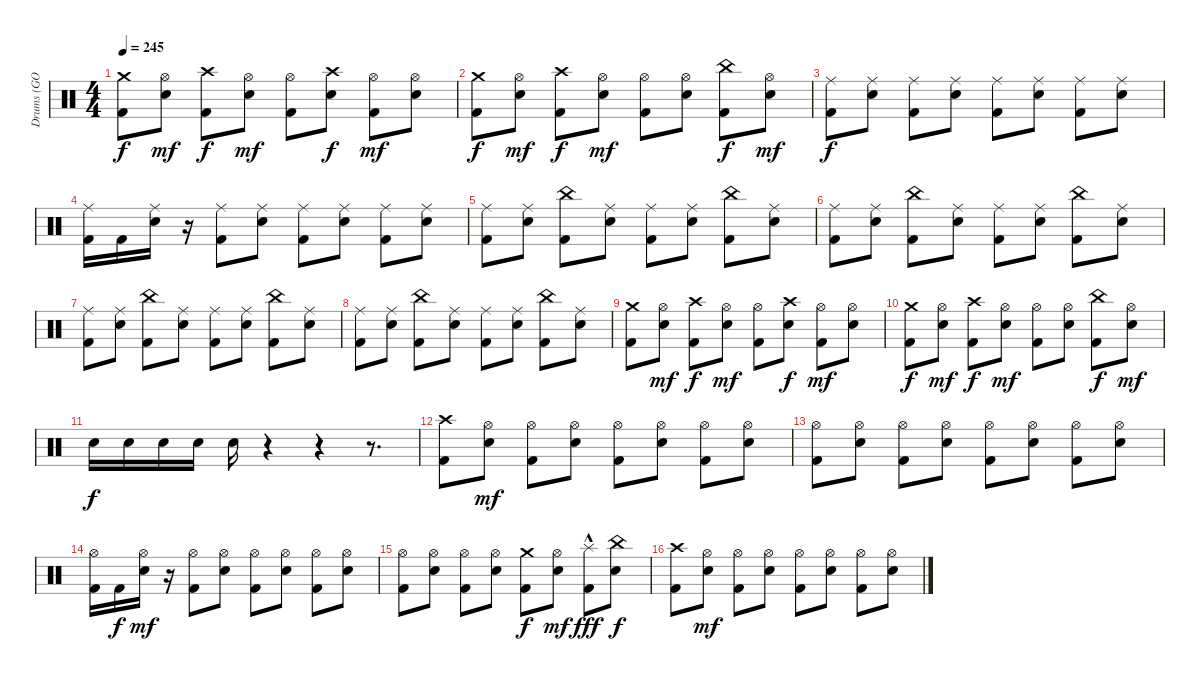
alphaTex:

\track ("Drums (GO DIRK)" "Drums (GO ") {instrument percussion}
\staff {score}
\articulation defaults
\ts (4 4)
\tempo 245
\clef neutral
\ks c
("Crash medium (hit)" "Kick (hit) 2").8{dy f} ("Hi-Hat (open)" "Electric Snare (hit)").8{dy mf} ("Crash high (hit)" "Kick (hit) 2").8{dy f} ("Hi-Hat (open)" "Electric Snare (hit)").8{dy mf} ("Hi-Hat (open)" "Kick (hit) 2").8 ("Crash high (hit)" "Electric Snare (hit)").8{dy f} ("Hi-Hat (open)" "Kick (hit) 2").8{dy mf} ("Hi-Hat (open)" "Electric Snare (hit)").8 |
("Crash medium (hit)" "Kick (hit) 2").8{dy f} ("Hi-Hat (open)" "Electric Snare (hit)").8{dy mf} ("Crash high (hit)" "Kick (hit) 2").8{dy f} ("Hi-Hat (open)" "Electric Snare (hit)").8{dy mf} ("Hi-Hat (open)" "Kick (hit) 2").8 ("Hi-Hat (open)" "Electric Snare (hit)").8 ("China (hit)" "Kick (hit) 2").8{dy f} ("Hi-Hat (open)" "Electric Snare (hit)").8{dy mf} |
("Ride (middle)" "Kick (hit) 2").8{dy f} ("Ride (middle)" "Electric Snare (hit)").8 ("Ride (middle)" "Kick (hit) 2").8 ("Ride (middle)" "Electric Snare (hit)").8 ("Ride (middle)" "Kick (hit) 2").8 ("Ride (middle)" "Electric Snare (hit)").8 ("Ride (middle)" "Kick (hit) 2").8 ("Ride (middle)" "Electric Snare (hit)").8 |
("Ride (middle)" "Kick (hit) 2").16 "Kick (hit) 2".16 ("Ride (middle)" "Electric Snare (hit)").16 r.16 ("Ride (middle)" "Kick (hit) 2").8 ("Ride (middle)" "Electric Snare (hit)").8 ("Ride (middle)" "Kick (hit) 2").8 ("Ride (middle)" "Electric Snare (hit)").8 ("Ride (middle)" "Kick (hit) 2").8 ("Ride (middle)" "Electric Snare (hit)").8 |
("Ride (middle)" "Kick (hit) 2").8 ("Ride (middle)" "Electric Snare (hit)").8 ("China (hit)" "Kick (hit) 2").8 ("Ride (middle)" "Electric Snare (hit)").8 ("Ride (middle)" "Kick (hit) 2").8 ("Ride (middle)" "Electric Snare (hit)").8 ("China (hit)" "Kick (hit) 2").8 ("Ride (middle)" "Electric Snare (hit)").8 |
("Ride (middle)" "Kick (hit) 2").8 ("Ride (middle)" "Electric Snare (hit)").8 ("China (hit)" "Kick (hit) 2").8 ("Ride (middle)" "Electric Snare (hit)").8 ("Ride (middle)" "Kick (hit) 2").8 ("Ride (middle)" "Electric Snare (hit)").8 ("China (hit)" "Kick (hit) 2").8 ("Ride (middle)" "Electric Snare (hit)").8 |
("Ride (middle)" "Kick (hit) 2").8 ("Ride (middle)" "Electric Snare (hit)").8 ("China (hit)" "Kick (hit) 2").8 ("Ride (middle)" "Electric Snare (hit)").8 ("Ride (middle)" "Kick (hit) 2").8 ("Ride (middle)" "Electric Snare (hit)").8 ("China (hit)" "Kick (hit) 2").8 ("Ride (middle)" "Electric Snare (hit)").8 |
("Ride (middle)" "Kick (hit) 2").8 ("Ride (middle)" "Electric Snare (hit)").8 ("China (hit)" "Kick (hit) 2").8 ("Ride (middle)" "Electric Snare (hit)").8 ("Ride (middle)" "Kick (hit) 2").8 ("Ride (middle)" "Electric Snare (hit)").8 ("China (hit)" "Kick (hit) 2").8 ("Ride (middle)" "Electric Snare (hit)").8 |
("Crash medium (hit)" "Kick (hit) 2").8 ("Hi-Hat (open)" "Electric Snare (hit)").8{dy mf} ("Crash high (hit)" "Kick (hit) 2").8{dy f} ("Hi-Hat (open)" "Electric Snare (hit)").8{dy mf} ("Hi-Hat (open)" "Kick (hit) 2").8 ("Crash high (hit)" "Electric Snare (hit)").8{dy f} ("Hi-Hat (open)" "Kick (hit) 2").8{dy mf} ("Hi-Hat (open)" "Electric Snare (hit)").8 |
("Crash medium (hit)" "Kick (hit) 2").8{dy f} ("Hi-Hat (open)" "Electric Snare (hit)").8{dy mf} ("Crash high (hit)" "Kick (hit) 2").8{dy f} ("Hi-Hat (open)" "Electric Snare (hit)").8{dy mf} ("Hi-Hat (open)" "Kick (hit) 2").8 ("Hi-Hat (open)" "Electric Snare (hit)").8 ("China (hit)" "Kick (hit) 2").8{dy f} ("Hi-Hat (open)" "Electric Snare (hit)").8{dy mf} |
"Electric Snare (hit)".16{dy f} "Electric Snare (hit)".16 "Electric Snare (hit)".16 "Electric Snare (hit)".16 "Electric Snare (hit)".16 r.4 r.4 r.8{d} |
("Crash high (hit)" "Kick (hit) 2").8 ("Hi-Hat (open)" "Electric Snare (hit)").8{dy mf} ("Hi-Hat (open)" "Kick (hit) 2").8 ("Hi-Hat (open)" "Electric Snare (hit)").8 ("Hi-Hat (open)" "Kick (hit) 2").8 ("Hi-Hat (open)" "Electric Snare (hit)").8 ("Hi-Hat (open)" "Kick (hit) 2").8 ("Hi-Hat (open)" "Electric Snare (hit)").8 |
("Hi-Hat (open)" "Kick (hit) 2").8 ("Hi-Hat (open)" "Electric Snare (hit)").8 ("Hi-Hat (open)" "Kick (hit) 2").8 ("Hi-Hat (open)" "Electric Snare (hit)").8 ("Hi-Hat (open)" "Kick (hit) 2").8 ("Hi-Hat (open)" "Electric Snare (hit)").8 ("Hi-Hat (open)" "Kick (hit) 2").8 ("Hi-Hat (open)" "Electric Snare (hit)").8 |
("Hi-Hat (open)" "Kick (hit) 2").16 "Kick (hit) 2".16{dy f} ("Hi-Hat (open)" "Electric Snare (hit)").16{dy mf} r.16 ("Hi-Hat (open)" "Kick (hit) 2").8 ("Hi-Hat (open)" "Electric Snare (hit)").8 ("Hi-Hat (open)" "Kick (hit) 2").8 ("Hi-Hat (open)" "Electric Snare (hit)").8 ("Hi-Hat (open)" "Kick (hit) 2").8 ("Hi-Hat (open)" "Electric Snare (hit)").8 |
("Hi-Hat (open)" "Kick (hit) 2").8 ("Hi-Hat (open)" "Electric Snare (hit)").8 ("Hi-Hat (open)" "Kick (hit) 2").8 ("Hi-Hat (open)" "Electric Snare (hit)").8 ("Crash medium (hit)" "Kick (hit) 2").8{dy f} ("Hi-Hat (open)" "Electric Snare (hit)").8{dy mf} ("Splash (hit)"{hac} "Kick (hit) 2").8{dy fff} ("China (hit)" "Electric Snare (hit)").8{dy f} |
("Crash high (hit)" "Kick (hit) 2").8 ("Hi-Hat (open)" "Electric Snare (hit)").8{dy mf} ("Hi-Hat (open)" "Kick (hit) 2").8 ("Hi-Hat (open)" "Electric Snare (hit)").8 ("Hi-Hat (open)" "Kick (hit) 2").8 ("Hi-Hat (open)" "Electric Snare (hit)").8 ("Hi-Hat (open)" "Kick (hit) 2").8 ("Hi-Hat (open)" "Electric Snare (hit)").8
